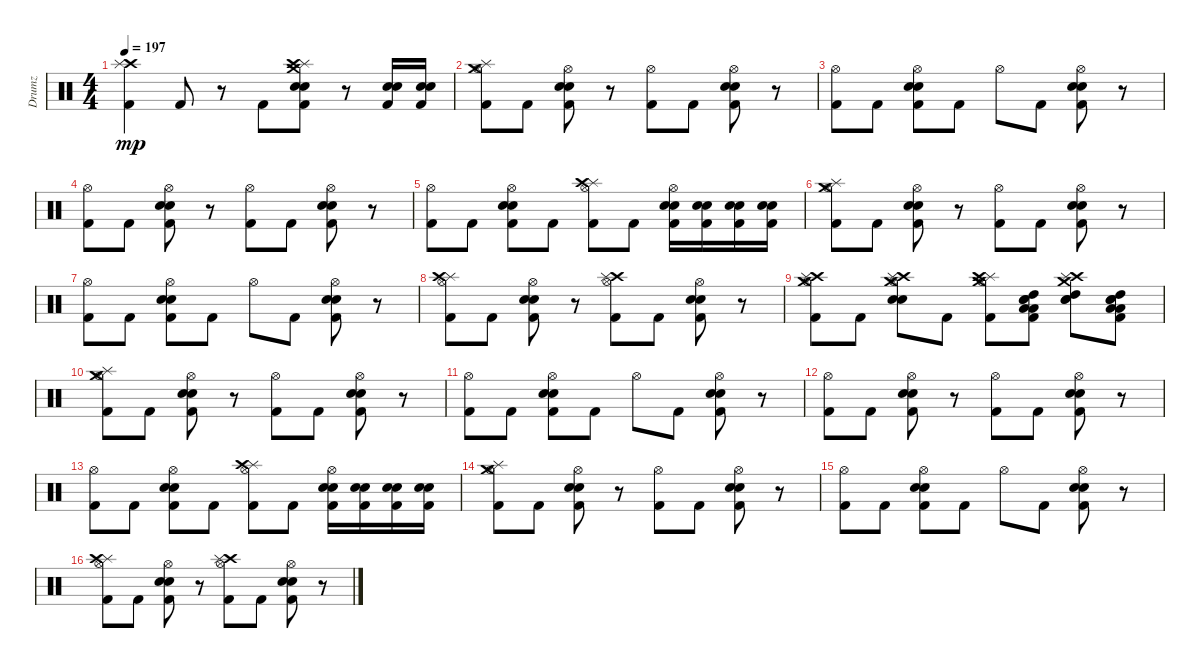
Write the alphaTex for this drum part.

\track ("Drumz" "Drumz") {instrument percussion}
\staff {score}
\articulation defaults
\ts (4 4)
\tempo 197
\clef neutral
\ks c
("Crash high (hit)" "Splash (hit)" "Kick (hit) 2").4{dy mp} "Kick (hit) 2".8 r.8 "Kick (hit) 2".8 ("Kick (hit) 2" "Snare (hit) 2" "Electric Snare (hit)" "Crash medium (hit)" "Splash (hit)" "Crash high (hit)").8 r.8 ("Snare (hit) 2" "Kick (hit) 2" "Electric Snare (hit)").16 ("Snare (hit) 2" "Electric Snare (hit)" "Kick (hit) 2").16 |
("Splash (hit)" "Crash medium (hit)" "Kick (hit) 2" "Hi-Hat (open)").8 "Kick (hit) 2".8 ("Kick (hit) 2" "Snare (hit) 2" "Electric Snare (hit)" "Hi-Hat (open)").8 r.8 ("Kick (hit) 2" "Hi-Hat (open)").8 "Kick (hit) 2".8 ("Kick (hit) 2" "Snare (hit) 2" "Electric Snare (hit)" "Hi-Hat (open)").8 r.8 |
("Hi-Hat (open)" "Kick (hit) 2").8 "Kick (hit) 2".8 ("Hi-Hat (open)" "Snare (hit) 2" "Electric Snare (hit)" "Kick (hit) 2").8 "Kick (hit) 2".8 "Hi-Hat (open)".8 "Kick (hit) 2".8 ("Hi-Hat (open)" "Snare (hit) 2" "Electric Snare (hit)" "Kick (hit) 2").8 r.8 |
("Kick (hit) 2" "Hi-Hat (open)").8 "Kick (hit) 2".8 ("Kick (hit) 2" "Snare (hit) 2" "Electric Snare (hit)" "Hi-Hat (open)").8 r.8 ("Kick (hit) 2" "Hi-Hat (open)").8 "Kick (hit) 2".8 ("Kick (hit) 2" "Snare (hit) 2" "Electric Snare (hit)" "Hi-Hat (open)").8 r.8 |
("Hi-Hat (open)" "Kick (hit) 2").8 "Kick (hit) 2".8 ("Hi-Hat (open)" "Snare (hit) 2" "Electric Snare (hit)" "Kick (hit) 2").8 "Kick (hit) 2".8 ("Kick (hit) 2" "Splash (hit)" "Crash high (hit)" "Hi-Hat (open)").8 "Kick (hit) 2".8 ("Kick (hit) 2" "Snare (hit) 2" "Electric Snare (hit)" "Hi-Hat (open)").16 ("Electric Snare (hit)" "Snare (hit) 2" "Kick (hit) 2").16 ("Snare (hit) 2" "Electric Snare (hit)" "Kick (hit) 2").16 ("Snare (hit) 2" "Electric Snare (hit)" "Kick (hit) 2").16 |
("Splash (hit)" "Crash medium (hit)" "Kick (hit) 2" "Hi-Hat (open)").8 "Kick (hit) 2".8 ("Kick (hit) 2" "Snare (hit) 2" "Electric Snare (hit)" "Hi-Hat (open)").8 r.8 ("Kick (hit) 2" "Hi-Hat (open)").8 "Kick (hit) 2".8 ("Kick (hit) 2" "Snare (hit) 2" "Electric Snare (hit)" "Hi-Hat (open)").8 r.8 |
("Hi-Hat (open)" "Kick (hit) 2").8 "Kick (hit) 2".8 ("Hi-Hat (open)" "Snare (hit) 2" "Electric Snare (hit)" "Kick (hit) 2").8 "Kick (hit) 2".8 "Hi-Hat (open)".8 "Kick (hit) 2".8 ("Hi-Hat (open)" "Snare (hit) 2" "Electric Snare (hit)" "Kick (hit) 2").8 r.8 |
("Splash (hit)" "Crash high (hit)" "Kick (hit) 2" "Hi-Hat (open)").8 "Kick (hit) 2".8 ("Kick (hit) 2" "Snare (hit) 2" "Electric Snare (hit)" "Hi-Hat (open)").8 r.8 ("Crash high (hit)" "Splash (hit)" "Kick (hit) 2" "Hi-Hat (open)").8 "Kick (hit) 2".8 ("Kick (hit) 2" "Snare (hit) 2" "Electric Snare (hit)" "Hi-Hat (open)").8 r.8 |
("Crash high (hit)" "Splash (hit)" "Crash medium (hit)" "Hi-Hat (open)" "Kick (hit) 2").8 "Kick (hit) 2".8 ("Crash high (hit)" "Crash medium (hit)" "Splash (hit)" "Hi-Hat (open)" "Snare (hit) 2" "Electric Snare (hit)").8 "Kick (hit) 2".8 ("Kick (hit) 2" "Splash (hit)" "Crash high (hit)" "Crash medium (hit)" "Hi-Hat (open)").8 ("Snare (hit) 2" "Electric Snare (hit)" "Low Floor Tom (hit)" "High Tom (hit)" "Low Tom (hit)" "Kick (hit) 2").8 ("Crash high (hit)" "Crash medium (hit)" "Splash (hit)" "High Tom (hit)" "Snare (hit) 2" "Electric Snare (hit)").8 ("High Tom (hit)" "Low Floor Tom (hit)" "Electric Snare (hit)" "Snare (hit) 2" "Kick (hit) 2" "Low Tom (hit)").8 |
("Splash (hit)" "Crash medium (hit)" "Kick (hit) 2" "Hi-Hat (open)").8 "Kick (hit) 2".8 ("Kick (hit) 2" "Snare (hit) 2" "Electric Snare (hit)" "Hi-Hat (open)").8 r.8 ("Kick (hit) 2" "Hi-Hat (open)").8 "Kick (hit) 2".8 ("Kick (hit) 2" "Snare (hit) 2" "Electric Snare (hit)" "Hi-Hat (open)").8 r.8 |
("Hi-Hat (open)" "Kick (hit) 2").8 "Kick (hit) 2".8 ("Hi-Hat (open)" "Snare (hit) 2" "Electric Snare (hit)" "Kick (hit) 2").8 "Kick (hit) 2".8 "Hi-Hat (open)".8 "Kick (hit) 2".8 ("Hi-Hat (open)" "Snare (hit) 2" "Electric Snare (hit)" "Kick (hit) 2").8 r.8 |
("Kick (hit) 2" "Hi-Hat (open)").8 "Kick (hit) 2".8 ("Kick (hit) 2" "Snare (hit) 2" "Electric Snare (hit)" "Hi-Hat (open)").8 r.8 ("Kick (hit) 2" "Hi-Hat (open)").8 "Kick (hit) 2".8 ("Kick (hit) 2" "Snare (hit) 2" "Electric Snare (hit)" "Hi-Hat (open)").8 r.8 |
("Hi-Hat (open)" "Kick (hit) 2").8 "Kick (hit) 2".8 ("Hi-Hat (open)" "Snare (hit) 2" "Electric Snare (hit)" "Kick (hit) 2").8 "Kick (hit) 2".8 ("Kick (hit) 2" "Splash (hit)" "Crash high (hit)" "Hi-Hat (open)").8 "Kick (hit) 2".8 ("Kick (hit) 2" "Snare (hit) 2" "Electric Snare (hit)" "Hi-Hat (open)").16 ("Electric Snare (hit)" "Snare (hit) 2" "Kick (hit) 2").16 ("Snare (hit) 2" "Electric Snare (hit)" "Kick (hit) 2").16 ("Snare (hit) 2" "Electric Snare (hit)" "Kick (hit) 2").16 |
("Splash (hit)" "Crash medium (hit)" "Kick (hit) 2" "Hi-Hat (open)").8 "Kick (hit) 2".8 ("Kick (hit) 2" "Snare (hit) 2" "Electric Snare (hit)" "Hi-Hat (open)").8 r.8 ("Kick (hit) 2" "Hi-Hat (open)").8 "Kick (hit) 2".8 ("Kick (hit) 2" "Snare (hit) 2" "Electric Snare (hit)" "Hi-Hat (open)").8 r.8 |
("Hi-Hat (open)" "Kick (hit) 2").8 "Kick (hit) 2".8 ("Hi-Hat (open)" "Snare (hit) 2" "Electric Snare (hit)" "Kick (hit) 2").8 "Kick (hit) 2".8 "Hi-Hat (open)".8 "Kick (hit) 2".8 ("Hi-Hat (open)" "Snare (hit) 2" "Electric Snare (hit)" "Kick (hit) 2").8 r.8 |
("Splash (hit)" "Crash high (hit)" "Kick (hit) 2" "Hi-Hat (open)").8 "Kick (hit) 2".8 ("Kick (hit) 2" "Snare (hit) 2" "Electric Snare (hit)" "Hi-Hat (open)").8 r.8 ("Crash high (hit)" "Splash (hit)" "Kick (hit) 2" "Hi-Hat (open)").8 "Kick (hit) 2".8 ("Kick (hit) 2" "Snare (hit) 2" "Electric Snare (hit)" "Hi-Hat (open)").8 r.8
